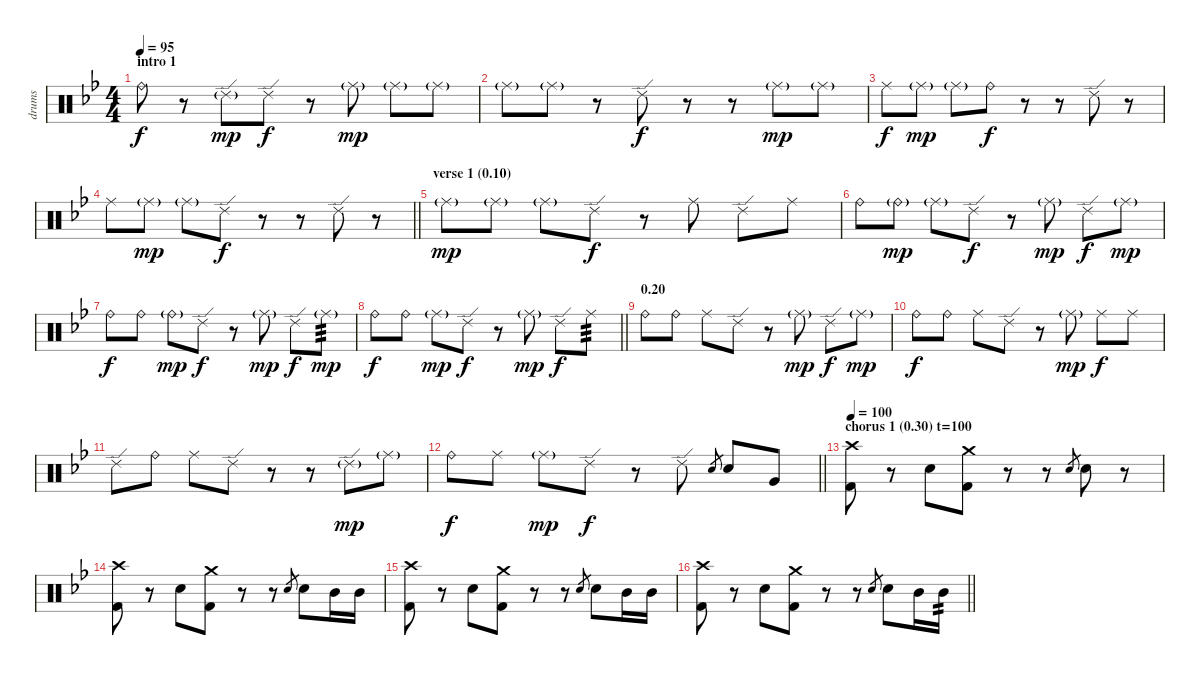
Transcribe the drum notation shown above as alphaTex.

\track ("drums" "drums") {instrument percussion}
\staff {score}
\articulation defaults
\ts (4 4)
\section ("" "intro 1")
\tempo 95
\clef neutral
\ks bb "Ride (bell)".8{dy f}
r.8 "Ride (edge) 2"{g}.8{dy mp} "Ride (edge) 2".8{dy f} r.8 "Ride (middle)"{g}.8{dy mp} "Ride (middle)"{g}.8 "Ride (middle)"{g}.8 |
"Ride (middle)"{g}.8 "Ride (middle)"{g}.8 r.8 "Ride (edge) 2".8{dy f} r.8 r.8 "Ride (middle)"{g}.8{dy mp} "Ride (middle)"{g}.8 |
"Ride (middle)".8{dy f} "Ride (middle)"{g}.8{dy mp} "Ride (middle)"{g}.8 "Ride (bell)".8{dy f} r.8 r.8 "Ride (edge) 2".8 r.8 |
\barLineRight lightlight "Ride (middle)".8 "Ride (middle)"{g}.8{dy mp} "Ride (middle)"{g}.8 "Ride (edge) 2".8{dy f}
r.8 r.8 "Ride (edge) 2".8 r.8 |
\section ("" "verse 1 (0.10)")
"Ride (middle)"{g}.8{dy mp} "Ride (middle)"{g}.8 "Ride (middle)"{g}.8 "Ride (edge) 2".8{dy f} r.8 "Ride (middle)".8 "Ride (edge) 2".8 "Ride (middle)".8 |
"Ride (bell)".8 "Ride (bell)"{g}.8{dy mp} "Ride (middle)"{g}.8 "Ride (edge) 2".8{dy f} r.8 "Ride (middle)"{g}.8{dy mp} "Ride (edge) 2".8{dy f} "Ride (middle)"{g}.8{dy mp} |
"Ride (bell)".8{dy f} "Ride (bell)".8 "Ride (bell)"{g}.8{dy mp} "Ride (edge) 2".8{dy f} r.8 "Ride (middle)"{g}.8{dy mp} "Ride (edge) 2".8{dy f} "Ride (middle)"{g}.8{tp 3 dy mp} |
\barLineRight lightlight "Ride (bell)".8{dy f} "Ride (bell)".8 "Ride (middle)"{g}.8{dy mp} "Ride (edge) 2".8{dy f}
r.8 "Ride (middle)"{g}.8{dy mp} "Ride (edge) 2".8{dy f} "Ride (middle)".8{tp 3} |
\section ("" "0.20")
"Ride (bell)".8 "Ride (bell)".8 "Ride (middle)".8 "Ride (edge) 2".8 r.8 "Ride (middle)"{g}.8{dy mp} "Ride (edge) 2".8{dy f} "Ride (middle)"{g}.8{dy mp} |
"Ride (bell)".8{dy f} "Ride (bell)".8 "Ride (middle)".8 "Ride (edge) 2".8 r.8 "Ride (middle)"{g}.8{dy mp} "Ride (middle)".8{dy f} "Ride (middle)".8 |
"Ride (edge) 2".8 "Ride (bell)".8 "Ride (middle)".8 "Ride (edge) 2".8 r.8 r.8 "Ride (edge) 2"{g}.8{dy mp} "Ride (middle)"{g}.8 |
\barLineRight lightlight "Ride (bell)".8{dy f} "Ride (middle)".8 "Ride (middle)"{g}.8{dy mp} "Ride (edge) 2".8{dy f}
r.8 "Ride (edge) 2".8 "Electric Snare (hit)".8{gr} "Electric Snare (hit)".8 "Very Low Tom (hit)".8 |
\section ("" "chorus 1 (0.30) t=100")
\tempo 100
("Crash high (hit)" "Kick (hit) 2").8 r.8 "Electric Snare (hit)".8 ("Crash medium (hit)" "Kick (hit) 2").8 r.8 r.8 "Electric Snare (hit)".8{gr} "Electric Snare (hit)".8 r.8 |
("Crash high (hit)" "Kick (hit) 2").8 r.8 "Electric Snare (hit)".8 ("Crash medium (hit)" "Kick (hit) 2").8 r.8 r.8 "Electric Snare (hit)".8{gr} "Electric Snare (hit)".8 "Mid Tom (hit)".16 "Mid Tom (hit)".16 |
("Crash high (hit)" "Kick (hit) 2").8 r.8 "Electric Snare (hit)".8 ("Crash medium (hit)" "Kick (hit) 2").8 r.8 r.8 "Electric Snare (hit)".8{gr} "Electric Snare (hit)".8 "Mid Tom (hit)".16 "Mid Tom (hit)".16 |
\barLineRight lightlight
("Crash high (hit)" "Kick (hit) 2").8 r.8 "Electric Snare (hit)".8 ("Crash medium (hit)" "Kick (hit) 2").8 r.8 r.8 "Electric Snare (hit)".8{gr} "Electric Snare (hit)".8 "Mid Tom (hit)".16 "Mid Tom (hit)".16{tp 2}
